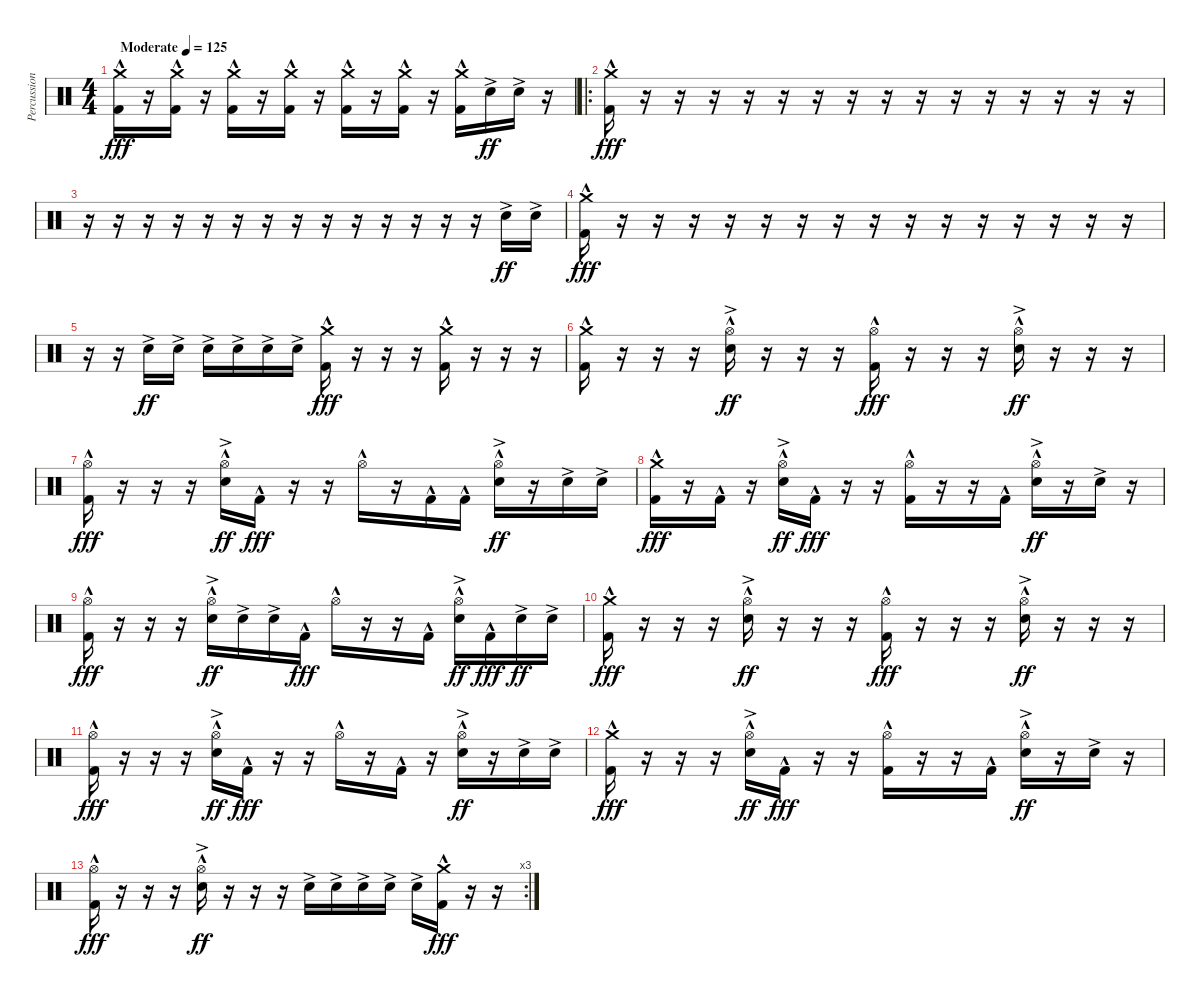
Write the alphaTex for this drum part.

\track ("Percussion" "Percussion") {instrument percussion bank 255}
\staff {score}
\articulation defaults
\ts (4 4)
\tempo (125 "Moderate")
\clef neutral
\ks c
("Crash medium (hit)"{hac} "Kick (hit) 2"{hac}).16{dy fff volume 5} r.16{volume 16} ("Crash medium (hit)"{hac} "Kick (hit) 2"{hac}).16 r.16 ("Crash medium (hit)"{hac} "Kick (hit) 2"{hac}).16 r.16 ("Crash medium (hit)"{hac} "Kick (hit) 2"{hac}).16 r.16 ("Crash medium (hit)"{hac} "Kick (hit) 2"{hac}).16 r.16 ("Crash medium (hit)"{hac} "Kick (hit) 2"{hac}).16 r.16 ("Crash medium (hit)"{hac} "Kick (hit) 2"{hac}).16 "Snare (hit) 2"{ac}.16{dy ff} "Snare (hit) 2"{ac}.16 r.16 |
\ro
("Crash medium (hit)"{hac} "Kick (hit) 2"{hac}).16{dy fff} r.16 r.16 r.16 r.16 r.16 r.16 r.16 r.16 r.16 r.16 r.16 r.16 r.16 r.16 r.16 |
r.16 r.16 r.16 r.16 r.16 r.16 r.16 r.16 r.16 r.16 r.16 r.16 r.16 r.16 "Snare (hit) 2"{ac}.16{dy ff} "Snare (hit) 2"{ac}.16 |
("Crash medium (hit)"{hac} "Kick (hit) 2"{hac}).16{dy fff} r.16 r.16 r.16 r.16 r.16 r.16 r.16 r.16 r.16 r.16 r.16 r.16 r.16 r.16 r.16 |
r.16 r.16 "Snare (hit) 2"{ac}.16{dy ff} "Snare (hit) 2"{ac}.16 "Snare (hit) 2"{ac}.16 "Snare (hit) 2"{ac}.16 "Snare (hit) 2"{ac}.16 "Snare (hit) 2"{ac}.16 ("Crash medium (hit)"{hac} "Kick (hit) 2"{hac}).16{dy fff} r.16 r.16 r.16 ("Crash medium (hit)"{hac} "Kick (hit) 2"{hac}).16 r.16 r.16 r.16 |
("Crash medium (hit)"{hac} "Kick (hit) 2"{hac}).16 r.16 r.16 r.16 ("Hi-Hat (open)"{hac} "Snare (hit) 2"{ac}).16{dy ff} r.16 r.16 r.16 ("Hi-Hat (open)"{hac} "Kick (hit) 2"{hac}).16{dy fff} r.16 r.16 r.16 ("Hi-Hat (open)"{hac} "Snare (hit) 2"{ac}).16{dy ff} r.16 r.16 r.16 |
("Hi-Hat (open)"{hac} "Kick (hit) 2"{hac}).16{dy fff} r.16 r.16 r.16 ("Hi-Hat (open)"{hac} "Snare (hit) 2"{ac}).16{dy ff} "Kick (hit) 2"{hac}.16{dy fff} r.16 r.16 "Hi-Hat (open)"{hac}.16 r.16 "Kick (hit) 2"{hac}.16 "Kick (hit) 2"{hac}.16 ("Hi-Hat (open)"{hac} "Snare (hit) 2"{ac}).16{dy ff} r.16 "Snare (hit) 2"{ac}.16 "Snare (hit) 2"{ac}.16 |
("Crash medium (hit)"{hac} "Kick (hit) 2"{hac}).16{dy fff} r.16 "Kick (hit) 2"{hac}.16 r.16 ("Hi-Hat (open)"{hac} "Snare (hit) 2"{ac}).16{dy ff} "Kick (hit) 2"{hac}.16{dy fff} r.16 r.16 ("Hi-Hat (open)"{hac} "Kick (hit) 2"{hac}).16 r.16 r.16 "Kick (hit) 2"{hac}.16 ("Hi-Hat (open)"{hac} "Snare (hit) 2"{ac}).16{dy ff} r.16 "Snare (hit) 2"{ac}.16 r.16 |
("Hi-Hat (open)"{hac} "Kick (hit) 2"{hac}).16{dy fff} r.16 r.16 r.16 ("Hi-Hat (open)"{hac} "Snare (hit) 2"{ac}).16{dy ff} "Snare (hit) 2"{ac}.16 "Snare (hit) 2"{ac}.16 "Kick (hit) 2"{hac}.16{dy fff} "Hi-Hat (open)"{hac}.16 r.16 r.16 "Kick (hit) 2"{hac}.16 ("Hi-Hat (open)"{hac} "Snare (hit) 2"{ac}).16{dy ff} "Kick (hit) 2"{hac}.16{dy fff} "Snare (hit) 2"{ac}.16{dy ff} "Snare (hit) 2"{ac}.16 |
("Crash medium (hit)"{hac} "Kick (hit) 2"{hac}).16{dy fff} r.16 r.16 r.16 ("Hi-Hat (open)"{hac} "Snare (hit) 2"{ac}).16{dy ff} r.16 r.16 r.16 ("Hi-Hat (open)"{hac} "Kick (hit) 2"{hac}).16{dy fff} r.16 r.16 r.16 ("Hi-Hat (open)"{hac} "Snare (hit) 2"{ac}).16{dy ff} r.16 r.16 r.16 |
("Hi-Hat (open)"{hac} "Kick (hit) 2"{hac}).16{dy fff} r.16 r.16 r.16 ("Hi-Hat (open)"{hac} "Snare (hit) 2"{ac}).16{dy ff} "Kick (hit) 2"{hac}.16{dy fff} r.16 r.16 "Hi-Hat (open)"{hac}.16 r.16 "Kick (hit) 2"{hac}.16 r.16 ("Hi-Hat (open)"{hac} "Snare (hit) 2"{ac}).16{dy ff} r.16 "Snare (hit) 2"{ac}.16 "Snare (hit) 2"{ac}.16 |
("Crash medium (hit)"{hac} "Kick (hit) 2"{hac}).16{dy fff} r.16 r.16 r.16 ("Hi-Hat (open)"{hac} "Snare (hit) 2"{ac}).16{dy ff} "Kick (hit) 2"{hac}.16{dy fff} r.16 r.16 ("Hi-Hat (open)"{hac} "Kick (hit) 2"{hac}).16 r.16 r.16 "Kick (hit) 2"{hac}.16 ("Hi-Hat (open)"{hac} "Snare (hit) 2"{ac}).16{dy ff} r.16 "Snare (hit) 2"{ac}.16 r.16 |
\rc 3
("Hi-Hat (open)"{hac} "Kick (hit) 2"{hac}).16{dy fff} r.16 r.16 r.16 ("Hi-Hat (open)"{hac} "Snare (hit) 2"{ac}).16{dy ff} r.16 r.16 r.16 "Snare (hit) 2"{ac}.16 "Snare (hit) 2"{ac}.16 "Snare (hit) 2"{ac}.16 "Snare (hit) 2"{ac}.16 "Snare (hit) 2"{ac}.16 ("Crash medium (hit)"{hac} "Kick (hit) 2"{hac}).16{dy fff} r.16 r.16
